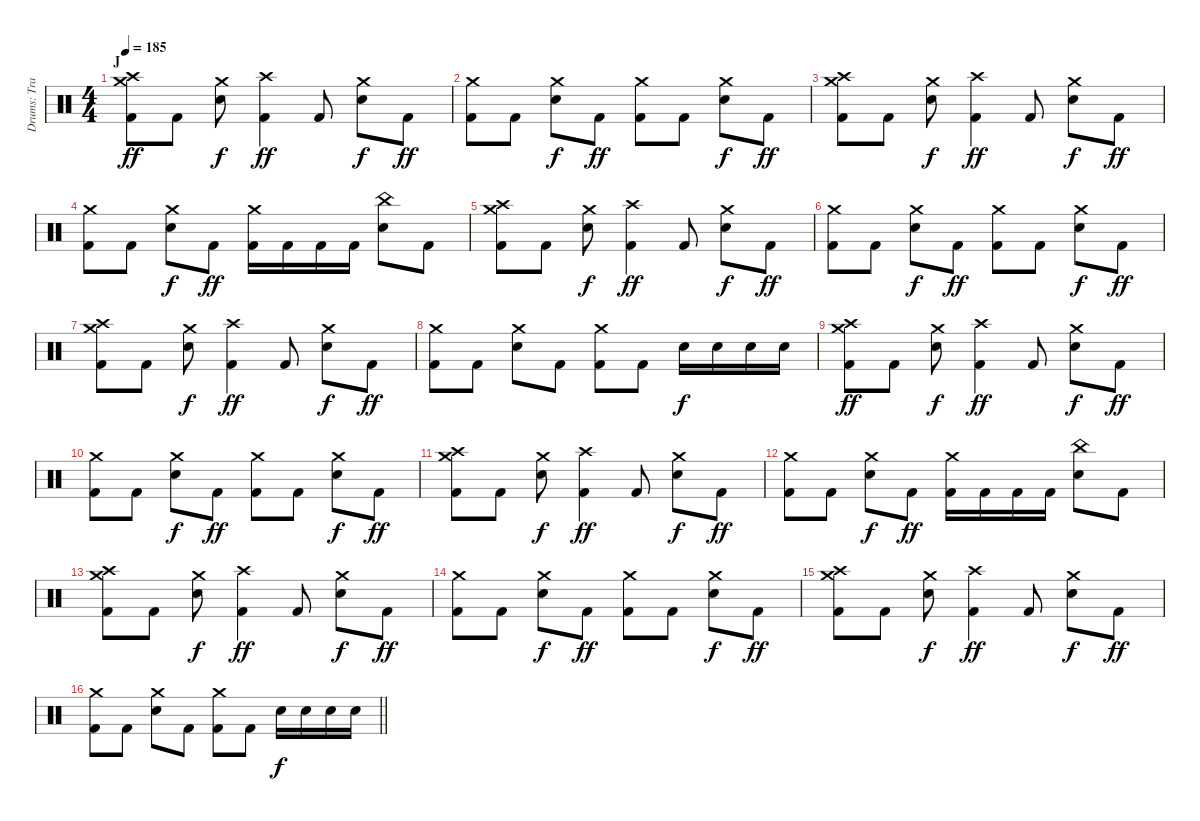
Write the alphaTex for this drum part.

\track ("Drums: Travis Clarke" "Drums: Tra") {instrument percussion}
\staff {score}
\articulation defaults
\ts (4 4)
\section ("" "J")
\tempo 185
\clef neutral
\ks c
("Kick (hit) 2" "Crash high (hit)" "Crash medium (hit)").8{dy ff} "Kick (hit) 2".8 ("Snare (hit) 2" "Crash medium (hit)").8{dy f} ("Kick (hit) 2" "Crash high (hit)").4{dy ff} "Kick (hit) 2".8 ("Snare (hit) 2" "Crash medium (hit)").8{dy f} "Kick (hit) 2".8{dy ff} |
("Kick (hit) 2" "Crash medium (hit)").8 "Kick (hit) 2".8 ("Snare (hit) 2" "Crash medium (hit)").8{dy f} "Kick (hit) 2".8{dy ff} ("Kick (hit) 2" "Crash medium (hit)").8 "Kick (hit) 2".8 ("Snare (hit) 2" "Crash medium (hit)").8{dy f} "Kick (hit) 2".8{dy ff} |
("Kick (hit) 2" "Crash high (hit)" "Crash medium (hit)").8 "Kick (hit) 2".8 ("Snare (hit) 2" "Crash medium (hit)").8{dy f} ("Kick (hit) 2" "Crash high (hit)").4{dy ff} "Kick (hit) 2".8 ("Snare (hit) 2" "Crash medium (hit)").8{dy f} "Kick (hit) 2".8{dy ff} |
("Kick (hit) 2" "Crash medium (hit)").8 "Kick (hit) 2".8 ("Snare (hit) 2" "Crash medium (hit)").8{dy f} "Kick (hit) 2".8{dy ff} ("Kick (hit) 2" "Crash medium (hit)").16 "Kick (hit) 2".16 "Kick (hit) 2".16 "Kick (hit) 2".16 ("Snare (hit) 2" "China (hit)").8 "Kick (hit) 2".8 |
("Kick (hit) 2" "Crash high (hit)" "Crash medium (hit)").8 "Kick (hit) 2".8 ("Snare (hit) 2" "Crash medium (hit)").8{dy f} ("Kick (hit) 2" "Crash high (hit)").4{dy ff} "Kick (hit) 2".8 ("Snare (hit) 2" "Crash medium (hit)").8{dy f} "Kick (hit) 2".8{dy ff} |
("Kick (hit) 2" "Crash medium (hit)").8 "Kick (hit) 2".8 ("Snare (hit) 2" "Crash medium (hit)").8{dy f} "Kick (hit) 2".8{dy ff} ("Kick (hit) 2" "Crash medium (hit)").8 "Kick (hit) 2".8 ("Snare (hit) 2" "Crash medium (hit)").8{dy f} "Kick (hit) 2".8{dy ff} |
("Kick (hit) 2" "Crash high (hit)" "Crash medium (hit)").8 "Kick (hit) 2".8 ("Snare (hit) 2" "Crash medium (hit)").8{dy f} ("Kick (hit) 2" "Crash high (hit)").4{dy ff} "Kick (hit) 2".8 ("Snare (hit) 2" "Crash medium (hit)").8{dy f} "Kick (hit) 2".8{dy ff} |
("Kick (hit) 2" "Crash medium (hit)").8 "Kick (hit) 2".8 ("Snare (hit) 2" "Crash medium (hit)").8 "Kick (hit) 2".8 ("Kick (hit) 2" "Crash medium (hit)").8 "Kick (hit) 2".8 "Snare (hit) 2".16{dy f} "Snare (hit) 2".16 "Snare (hit) 2".16 "Snare (hit) 2".16 |
("Kick (hit) 2" "Crash high (hit)" "Crash medium (hit)").8{dy ff} "Kick (hit) 2".8 ("Snare (hit) 2" "Crash medium (hit)").8{dy f} ("Kick (hit) 2" "Crash high (hit)").4{dy ff} "Kick (hit) 2".8 ("Snare (hit) 2" "Crash medium (hit)").8{dy f} "Kick (hit) 2".8{dy ff} |
("Kick (hit) 2" "Crash medium (hit)").8 "Kick (hit) 2".8 ("Snare (hit) 2" "Crash medium (hit)").8{dy f} "Kick (hit) 2".8{dy ff} ("Kick (hit) 2" "Crash medium (hit)").8 "Kick (hit) 2".8 ("Snare (hit) 2" "Crash medium (hit)").8{dy f} "Kick (hit) 2".8{dy ff} |
("Kick (hit) 2" "Crash high (hit)" "Crash medium (hit)").8 "Kick (hit) 2".8 ("Snare (hit) 2" "Crash medium (hit)").8{dy f} ("Kick (hit) 2" "Crash high (hit)").4{dy ff} "Kick (hit) 2".8 ("Snare (hit) 2" "Crash medium (hit)").8{dy f} "Kick (hit) 2".8{dy ff} |
("Kick (hit) 2" "Crash medium (hit)").8 "Kick (hit) 2".8 ("Snare (hit) 2" "Crash medium (hit)").8{dy f} "Kick (hit) 2".8{dy ff} ("Kick (hit) 2" "Crash medium (hit)").16 "Kick (hit) 2".16 "Kick (hit) 2".16 "Kick (hit) 2".16 ("Snare (hit) 2" "China (hit)").8 "Kick (hit) 2".8 |
("Kick (hit) 2" "Crash high (hit)" "Crash medium (hit)").8 "Kick (hit) 2".8 ("Snare (hit) 2" "Crash medium (hit)").8{dy f} ("Kick (hit) 2" "Crash high (hit)").4{dy ff} "Kick (hit) 2".8 ("Snare (hit) 2" "Crash medium (hit)").8{dy f} "Kick (hit) 2".8{dy ff} |
("Kick (hit) 2" "Crash medium (hit)").8 "Kick (hit) 2".8 ("Snare (hit) 2" "Crash medium (hit)").8{dy f} "Kick (hit) 2".8{dy ff} ("Kick (hit) 2" "Crash medium (hit)").8 "Kick (hit) 2".8 ("Snare (hit) 2" "Crash medium (hit)").8{dy f} "Kick (hit) 2".8{dy ff} |
("Kick (hit) 2" "Crash high (hit)" "Crash medium (hit)").8 "Kick (hit) 2".8 ("Snare (hit) 2" "Crash medium (hit)").8{dy f} ("Kick (hit) 2" "Crash high (hit)").4{dy ff} "Kick (hit) 2".8 ("Snare (hit) 2" "Crash medium (hit)").8{dy f} "Kick (hit) 2".8{dy ff} |
\barLineRight lightlight
("Kick (hit) 2" "Crash medium (hit)").8 "Kick (hit) 2".8 ("Snare (hit) 2" "Crash medium (hit)").8 "Kick (hit) 2".8 ("Kick (hit) 2" "Crash medium (hit)").8 "Kick (hit) 2".8 "Snare (hit) 2".16{dy f} "Snare (hit) 2".16 "Snare (hit) 2".16 "Snare (hit) 2".16
